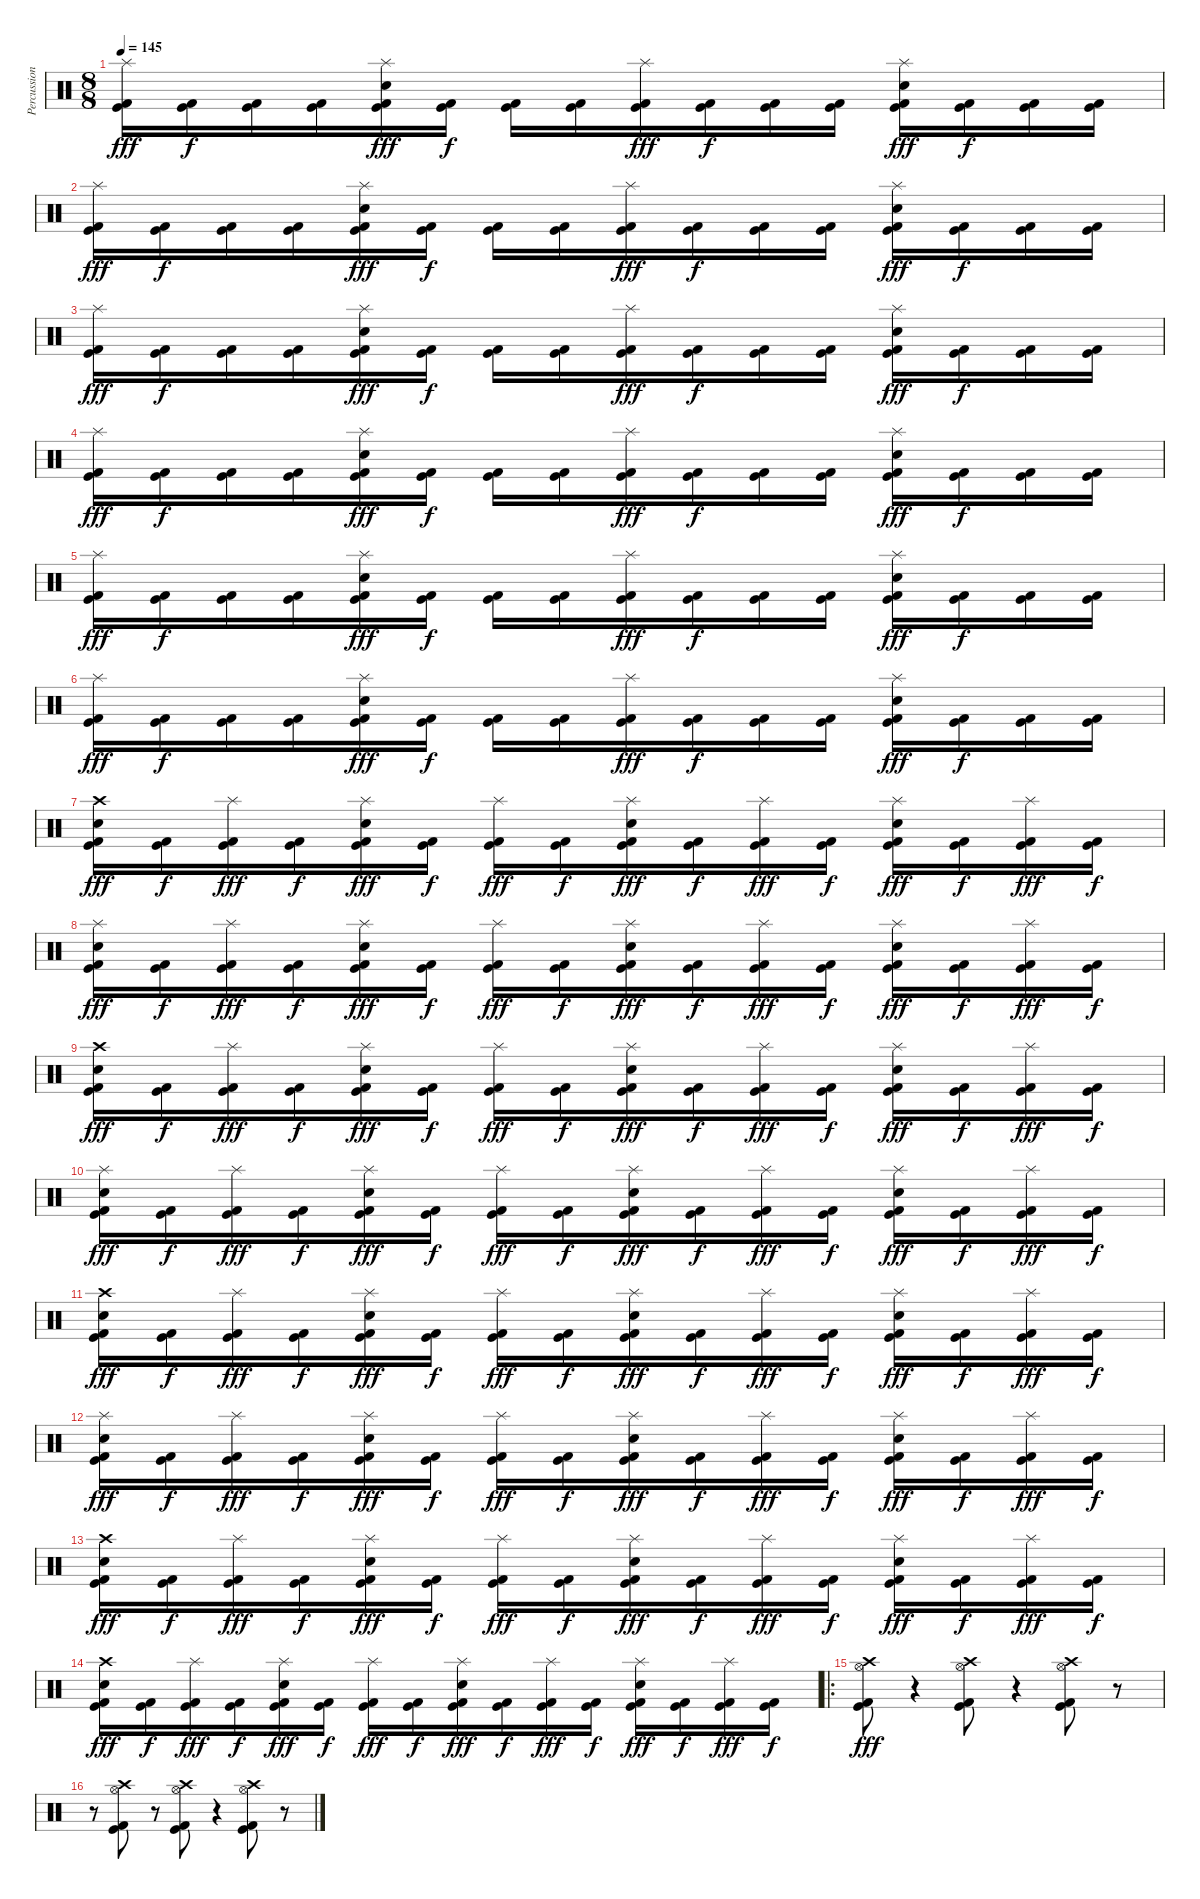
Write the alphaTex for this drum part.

\track ("Percussion" "Percussion") {instrument percussion}
\staff {score}
\articulation defaults
\ts (8 8)
\tempo 145
\clef neutral
\ks c
("Splash (hit)" "Kick (hit)" "Kick (hit) 2").16{dy fff} ("Kick (hit)" "Kick (hit) 2").16{dy f} ("Kick (hit)" "Kick (hit) 2").16 ("Kick (hit)" "Kick (hit) 2").16 ("Splash (hit)" "Electric Snare (hit)" "Kick (hit)" "Kick (hit) 2").16{dy fff} ("Kick (hit)" "Kick (hit) 2").16{dy f} ("Kick (hit)" "Kick (hit) 2").16 ("Kick (hit)" "Kick (hit) 2").16 ("Splash (hit)" "Kick (hit)" "Kick (hit) 2").16{dy fff} ("Kick (hit)" "Kick (hit) 2").16{dy f} ("Kick (hit)" "Kick (hit) 2").16 ("Kick (hit)" "Kick (hit) 2").16 ("Splash (hit)" "Electric Snare (hit)" "Kick (hit)" "Kick (hit) 2").16{dy fff} ("Kick (hit)" "Kick (hit) 2").16{dy f} ("Kick (hit)" "Kick (hit) 2").16 ("Kick (hit)" "Kick (hit) 2").16 |
("Splash (hit)" "Kick (hit)" "Kick (hit) 2").16{dy fff} ("Kick (hit)" "Kick (hit) 2").16{dy f} ("Kick (hit)" "Kick (hit) 2").16 ("Kick (hit)" "Kick (hit) 2").16 ("Splash (hit)" "Electric Snare (hit)" "Kick (hit)" "Kick (hit) 2").16{dy fff} ("Kick (hit)" "Kick (hit) 2").16{dy f} ("Kick (hit)" "Kick (hit) 2").16 ("Kick (hit)" "Kick (hit) 2").16 ("Splash (hit)" "Kick (hit)" "Kick (hit) 2").16{dy fff} ("Kick (hit)" "Kick (hit) 2").16{dy f} ("Kick (hit)" "Kick (hit) 2").16 ("Kick (hit)" "Kick (hit) 2").16 ("Splash (hit)" "Electric Snare (hit)" "Kick (hit)" "Kick (hit) 2").16{dy fff} ("Kick (hit)" "Kick (hit) 2").16{dy f} ("Kick (hit)" "Kick (hit) 2").16 ("Kick (hit)" "Kick (hit) 2").16 |
("Splash (hit)" "Kick (hit)" "Kick (hit) 2").16{dy fff} ("Kick (hit)" "Kick (hit) 2").16{dy f} ("Kick (hit)" "Kick (hit) 2").16 ("Kick (hit)" "Kick (hit) 2").16 ("Splash (hit)" "Electric Snare (hit)" "Kick (hit)" "Kick (hit) 2").16{dy fff} ("Kick (hit)" "Kick (hit) 2").16{dy f} ("Kick (hit)" "Kick (hit) 2").16 ("Kick (hit)" "Kick (hit) 2").16 ("Splash (hit)" "Kick (hit)" "Kick (hit) 2").16{dy fff} ("Kick (hit)" "Kick (hit) 2").16{dy f} ("Kick (hit)" "Kick (hit) 2").16 ("Kick (hit)" "Kick (hit) 2").16 ("Splash (hit)" "Electric Snare (hit)" "Kick (hit)" "Kick (hit) 2").16{dy fff} ("Kick (hit)" "Kick (hit) 2").16{dy f} ("Kick (hit)" "Kick (hit) 2").16 ("Kick (hit)" "Kick (hit) 2").16 |
("Splash (hit)" "Kick (hit)" "Kick (hit) 2").16{dy fff} ("Kick (hit)" "Kick (hit) 2").16{dy f} ("Kick (hit)" "Kick (hit) 2").16 ("Kick (hit)" "Kick (hit) 2").16 ("Splash (hit)" "Electric Snare (hit)" "Kick (hit)" "Kick (hit) 2").16{dy fff} ("Kick (hit)" "Kick (hit) 2").16{dy f} ("Kick (hit)" "Kick (hit) 2").16 ("Kick (hit)" "Kick (hit) 2").16 ("Splash (hit)" "Kick (hit)" "Kick (hit) 2").16{dy fff} ("Kick (hit)" "Kick (hit) 2").16{dy f} ("Kick (hit)" "Kick (hit) 2").16 ("Kick (hit)" "Kick (hit) 2").16 ("Splash (hit)" "Electric Snare (hit)" "Kick (hit)" "Kick (hit) 2").16{dy fff} ("Kick (hit)" "Kick (hit) 2").16{dy f} ("Kick (hit)" "Kick (hit) 2").16 ("Kick (hit)" "Kick (hit) 2").16 |
("Splash (hit)" "Kick (hit)" "Kick (hit) 2").16{dy fff} ("Kick (hit)" "Kick (hit) 2").16{dy f} ("Kick (hit)" "Kick (hit) 2").16 ("Kick (hit)" "Kick (hit) 2").16 ("Splash (hit)" "Electric Snare (hit)" "Kick (hit)" "Kick (hit) 2").16{dy fff} ("Kick (hit)" "Kick (hit) 2").16{dy f} ("Kick (hit)" "Kick (hit) 2").16 ("Kick (hit)" "Kick (hit) 2").16 ("Splash (hit)" "Kick (hit)" "Kick (hit) 2").16{dy fff} ("Kick (hit)" "Kick (hit) 2").16{dy f} ("Kick (hit)" "Kick (hit) 2").16 ("Kick (hit)" "Kick (hit) 2").16 ("Splash (hit)" "Electric Snare (hit)" "Kick (hit)" "Kick (hit) 2").16{dy fff} ("Kick (hit)" "Kick (hit) 2").16{dy f} ("Kick (hit)" "Kick (hit) 2").16 ("Kick (hit)" "Kick (hit) 2").16 |
("Splash (hit)" "Kick (hit)" "Kick (hit) 2").16{dy fff} ("Kick (hit)" "Kick (hit) 2").16{dy f} ("Kick (hit)" "Kick (hit) 2").16 ("Kick (hit)" "Kick (hit) 2").16 ("Splash (hit)" "Electric Snare (hit)" "Kick (hit)" "Kick (hit) 2").16{dy fff} ("Kick (hit)" "Kick (hit) 2").16{dy f} ("Kick (hit)" "Kick (hit) 2").16 ("Kick (hit)" "Kick (hit) 2").16 ("Splash (hit)" "Kick (hit)" "Kick (hit) 2").16{dy fff} ("Kick (hit)" "Kick (hit) 2").16{dy f} ("Kick (hit)" "Kick (hit) 2").16 ("Kick (hit)" "Kick (hit) 2").16 ("Splash (hit)" "Electric Snare (hit)" "Kick (hit)" "Kick (hit) 2").16{dy fff} ("Kick (hit)" "Kick (hit) 2").16{dy f} ("Kick (hit)" "Kick (hit) 2").16 ("Kick (hit)" "Kick (hit) 2").16 |
("Crash high (hit)" "Electric Snare (hit)" "Kick (hit)" "Kick (hit) 2").16{dy fff} ("Kick (hit)" "Kick (hit) 2").16{dy f} ("Splash (hit)" "Kick (hit)" "Kick (hit) 2").16{dy fff} ("Kick (hit)" "Kick (hit) 2").16{dy f} ("Splash (hit)" "Electric Snare (hit)" "Kick (hit)" "Kick (hit) 2").16{dy fff} ("Kick (hit)" "Kick (hit) 2").16{dy f} ("Splash (hit)" "Kick (hit)" "Kick (hit) 2").16{dy fff} ("Kick (hit)" "Kick (hit) 2").16{dy f} ("Splash (hit)" "Electric Snare (hit)" "Kick (hit)" "Kick (hit) 2").16{dy fff} ("Kick (hit)" "Kick (hit) 2").16{dy f} ("Splash (hit)" "Kick (hit)" "Kick (hit) 2").16{dy fff} ("Kick (hit)" "Kick (hit) 2").16{dy f} ("Splash (hit)" "Electric Snare (hit)" "Kick (hit)" "Kick (hit) 2").16{dy fff} ("Kick (hit)" "Kick (hit) 2").16{dy f} ("Splash (hit)" "Kick (hit)" "Kick (hit) 2").16{dy fff} ("Kick (hit)" "Kick (hit) 2").16{dy f} |
("Splash (hit)" "Electric Snare (hit)" "Kick (hit)" "Kick (hit) 2").16{dy fff} ("Kick (hit)" "Kick (hit) 2").16{dy f} ("Splash (hit)" "Kick (hit)" "Kick (hit) 2").16{dy fff} ("Kick (hit)" "Kick (hit) 2").16{dy f} ("Splash (hit)" "Electric Snare (hit)" "Kick (hit)" "Kick (hit) 2").16{dy fff} ("Kick (hit)" "Kick (hit) 2").16{dy f} ("Splash (hit)" "Kick (hit)" "Kick (hit) 2").16{dy fff} ("Kick (hit)" "Kick (hit) 2").16{dy f} ("Splash (hit)" "Electric Snare (hit)" "Kick (hit)" "Kick (hit) 2").16{dy fff} ("Kick (hit)" "Kick (hit) 2").16{dy f} ("Splash (hit)" "Kick (hit)" "Kick (hit) 2").16{dy fff} ("Kick (hit)" "Kick (hit) 2").16{dy f} ("Splash (hit)" "Electric Snare (hit)" "Kick (hit)" "Kick (hit) 2").16{dy fff} ("Kick (hit)" "Kick (hit) 2").16{dy f} ("Splash (hit)" "Kick (hit)" "Kick (hit) 2").16{dy fff} ("Kick (hit)" "Kick (hit) 2").16{dy f} |
("Crash high (hit)" "Electric Snare (hit)" "Kick (hit)" "Kick (hit) 2").16{dy fff} ("Kick (hit)" "Kick (hit) 2").16{dy f} ("Splash (hit)" "Kick (hit)" "Kick (hit) 2").16{dy fff} ("Kick (hit)" "Kick (hit) 2").16{dy f} ("Splash (hit)" "Electric Snare (hit)" "Kick (hit)" "Kick (hit) 2").16{dy fff} ("Kick (hit)" "Kick (hit) 2").16{dy f} ("Splash (hit)" "Kick (hit)" "Kick (hit) 2").16{dy fff} ("Kick (hit)" "Kick (hit) 2").16{dy f} ("Splash (hit)" "Electric Snare (hit)" "Kick (hit)" "Kick (hit) 2").16{dy fff} ("Kick (hit)" "Kick (hit) 2").16{dy f} ("Splash (hit)" "Kick (hit)" "Kick (hit) 2").16{dy fff} ("Kick (hit)" "Kick (hit) 2").16{dy f} ("Splash (hit)" "Electric Snare (hit)" "Kick (hit)" "Kick (hit) 2").16{dy fff} ("Kick (hit)" "Kick (hit) 2").16{dy f} ("Splash (hit)" "Kick (hit)" "Kick (hit) 2").16{dy fff} ("Kick (hit)" "Kick (hit) 2").16{dy f} |
("Splash (hit)" "Electric Snare (hit)" "Kick (hit)" "Kick (hit) 2").16{dy fff} ("Kick (hit)" "Kick (hit) 2").16{dy f} ("Splash (hit)" "Kick (hit)" "Kick (hit) 2").16{dy fff} ("Kick (hit)" "Kick (hit) 2").16{dy f} ("Splash (hit)" "Electric Snare (hit)" "Kick (hit)" "Kick (hit) 2").16{dy fff} ("Kick (hit)" "Kick (hit) 2").16{dy f} ("Splash (hit)" "Kick (hit)" "Kick (hit) 2").16{dy fff} ("Kick (hit)" "Kick (hit) 2").16{dy f} ("Splash (hit)" "Electric Snare (hit)" "Kick (hit)" "Kick (hit) 2").16{dy fff} ("Kick (hit)" "Kick (hit) 2").16{dy f} ("Splash (hit)" "Kick (hit)" "Kick (hit) 2").16{dy fff} ("Kick (hit)" "Kick (hit) 2").16{dy f} ("Splash (hit)" "Electric Snare (hit)" "Kick (hit)" "Kick (hit) 2").16{dy fff} ("Kick (hit)" "Kick (hit) 2").16{dy f} ("Splash (hit)" "Kick (hit)" "Kick (hit) 2").16{dy fff} ("Kick (hit)" "Kick (hit) 2").16{dy f} |
("Crash high (hit)" "Electric Snare (hit)" "Kick (hit)" "Kick (hit) 2").16{dy fff} ("Kick (hit)" "Kick (hit) 2").16{dy f} ("Splash (hit)" "Kick (hit)" "Kick (hit) 2").16{dy fff} ("Kick (hit)" "Kick (hit) 2").16{dy f} ("Splash (hit)" "Electric Snare (hit)" "Kick (hit)" "Kick (hit) 2").16{dy fff} ("Kick (hit)" "Kick (hit) 2").16{dy f} ("Splash (hit)" "Kick (hit)" "Kick (hit) 2").16{dy fff} ("Kick (hit)" "Kick (hit) 2").16{dy f} ("Splash (hit)" "Electric Snare (hit)" "Kick (hit)" "Kick (hit) 2").16{dy fff} ("Kick (hit)" "Kick (hit) 2").16{dy f} ("Splash (hit)" "Kick (hit)" "Kick (hit) 2").16{dy fff} ("Kick (hit)" "Kick (hit) 2").16{dy f} ("Splash (hit)" "Electric Snare (hit)" "Kick (hit)" "Kick (hit) 2").16{dy fff} ("Kick (hit)" "Kick (hit) 2").16{dy f} ("Splash (hit)" "Kick (hit)" "Kick (hit) 2").16{dy fff} ("Kick (hit)" "Kick (hit) 2").16{dy f} |
("Splash (hit)" "Electric Snare (hit)" "Kick (hit)" "Kick (hit) 2").16{dy fff} ("Kick (hit)" "Kick (hit) 2").16{dy f} ("Splash (hit)" "Kick (hit)" "Kick (hit) 2").16{dy fff} ("Kick (hit)" "Kick (hit) 2").16{dy f} ("Splash (hit)" "Electric Snare (hit)" "Kick (hit)" "Kick (hit) 2").16{dy fff} ("Kick (hit)" "Kick (hit) 2").16{dy f} ("Splash (hit)" "Kick (hit)" "Kick (hit) 2").16{dy fff} ("Kick (hit)" "Kick (hit) 2").16{dy f} ("Splash (hit)" "Electric Snare (hit)" "Kick (hit)" "Kick (hit) 2").16{dy fff} ("Kick (hit)" "Kick (hit) 2").16{dy f} ("Splash (hit)" "Kick (hit)" "Kick (hit) 2").16{dy fff} ("Kick (hit)" "Kick (hit) 2").16{dy f} ("Splash (hit)" "Electric Snare (hit)" "Kick (hit)" "Kick (hit) 2").16{dy fff} ("Kick (hit)" "Kick (hit) 2").16{dy f} ("Splash (hit)" "Kick (hit)" "Kick (hit) 2").16{dy fff} ("Kick (hit)" "Kick (hit) 2").16{dy f} |
("Crash high (hit)" "Electric Snare (hit)" "Kick (hit)" "Kick (hit) 2").16{dy fff} ("Kick (hit)" "Kick (hit) 2").16{dy f} ("Splash (hit)" "Kick (hit)" "Kick (hit) 2").16{dy fff} ("Kick (hit)" "Kick (hit) 2").16{dy f} ("Splash (hit)" "Electric Snare (hit)" "Kick (hit)" "Kick (hit) 2").16{dy fff} ("Kick (hit)" "Kick (hit) 2").16{dy f} ("Splash (hit)" "Kick (hit)" "Kick (hit) 2").16{dy fff} ("Kick (hit)" "Kick (hit) 2").16{dy f} ("Splash (hit)" "Electric Snare (hit)" "Kick (hit)" "Kick (hit) 2").16{dy fff} ("Kick (hit)" "Kick (hit) 2").16{dy f} ("Splash (hit)" "Kick (hit)" "Kick (hit) 2").16{dy fff} ("Kick (hit)" "Kick (hit) 2").16{dy f} ("Splash (hit)" "Electric Snare (hit)" "Kick (hit)" "Kick (hit) 2").16{dy fff} ("Kick (hit)" "Kick (hit) 2").16{dy f} ("Splash (hit)" "Kick (hit)" "Kick (hit) 2").16{dy fff} ("Kick (hit)" "Kick (hit) 2").16{dy f} |
("Crash high (hit)" "Electric Snare (hit)" "Kick (hit)" "Kick (hit) 2").16{dy fff} ("Kick (hit)" "Kick (hit) 2").16{dy f} ("Splash (hit)" "Kick (hit)" "Kick (hit) 2").16{dy fff} ("Kick (hit)" "Kick (hit) 2").16{dy f} ("Splash (hit)" "Electric Snare (hit)" "Kick (hit)" "Kick (hit) 2").16{dy fff} ("Kick (hit)" "Kick (hit) 2").16{dy f} ("Splash (hit)" "Kick (hit)" "Kick (hit) 2").16{dy fff} ("Kick (hit)" "Kick (hit) 2").16{dy f} ("Splash (hit)" "Electric Snare (hit)" "Kick (hit)" "Kick (hit) 2").16{dy fff} ("Kick (hit)" "Kick (hit) 2").16{dy f} ("Splash (hit)" "Kick (hit)" "Kick (hit) 2").16{dy fff} ("Kick (hit)" "Kick (hit) 2").16{dy f} ("Splash (hit)" "Electric Snare (hit)" "Kick (hit)" "Kick (hit) 2").16{dy fff} ("Kick (hit)" "Kick (hit) 2").16{dy f} ("Splash (hit)" "Kick (hit)" "Kick (hit) 2").16{dy fff} ("Kick (hit)" "Kick (hit) 2").16{dy f} |
\ro
("Crash high (hit)" "Hi-Hat (open)" "Kick (hit)" "Kick (hit) 2").8{dy fff} r.4 ("Crash high (hit)" "Hi-Hat (open)" "Kick (hit)" "Kick (hit) 2").8 r.4 ("Crash high (hit)" "Hi-Hat (open)" "Kick (hit)" "Kick (hit) 2").8 r.8 |
r.8 ("Crash high (hit)" "Hi-Hat (open)" "Kick (hit)" "Kick (hit) 2").8 r.8 ("Crash high (hit)" "Hi-Hat (open)" "Kick (hit)" "Kick (hit) 2").8 r.4 ("Crash high (hit)" "Hi-Hat (open)" "Kick (hit)" "Kick (hit) 2").8 r.8
